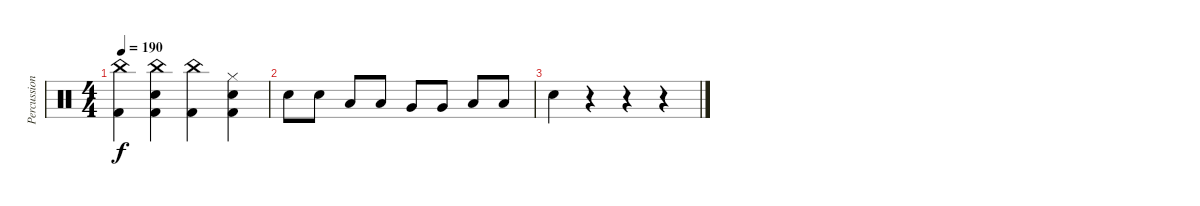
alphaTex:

\track ("Percussion" "Percussion") {instrument percussion}
\staff {score}
\articulation defaults
\ts (4 4)
\tempo 190
\clef neutral
\ks c
("China (hit)" "Kick (hit) 2").4{dy f} ("China (hit)" "Snare (hit) 2" "Kick (hit) 2").4 ("China (hit)" "Kick (hit) 2").4 ("Hi-Hat (closed)" "Snare (hit) 2" "Kick (hit) 2").4 |
"Snare (hit) 2".8 "Snare (hit) 2".8 "Low Tom (hit)".8 "Low Tom (hit)".8 "Very Low Tom (hit)".8 "Very Low Tom (hit)".8 "Low Floor Tom (hit)".8 "Low Floor Tom (hit)".8 |
"Snare (hit) 2".4 r.4 r.4 r.4
